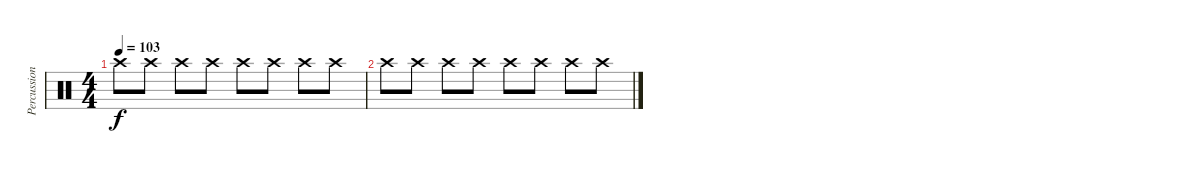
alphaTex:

\track ("Percussion2" "Percussion") {instrument percussion}
\staff {score}
\articulation defaults
\ts (4 4)
\tempo 103
\clef neutral
\ks c "Crash high (hit)".8{dy f} "Crash high (hit)".8 "Crash high (hit)".8 "Crash high (hit)".8 "Crash high (hit)".8 "Crash high (hit)".8 "Crash high (hit)".8 "Crash high (hit)".8
|
"Crash high (hit)".8 "Crash high (hit)".8 "Crash high (hit)".8 "Crash high (hit)".8 "Crash high (hit)".8 "Crash high (hit)".8 "Crash high (hit)".8 "Crash high (hit)".8
